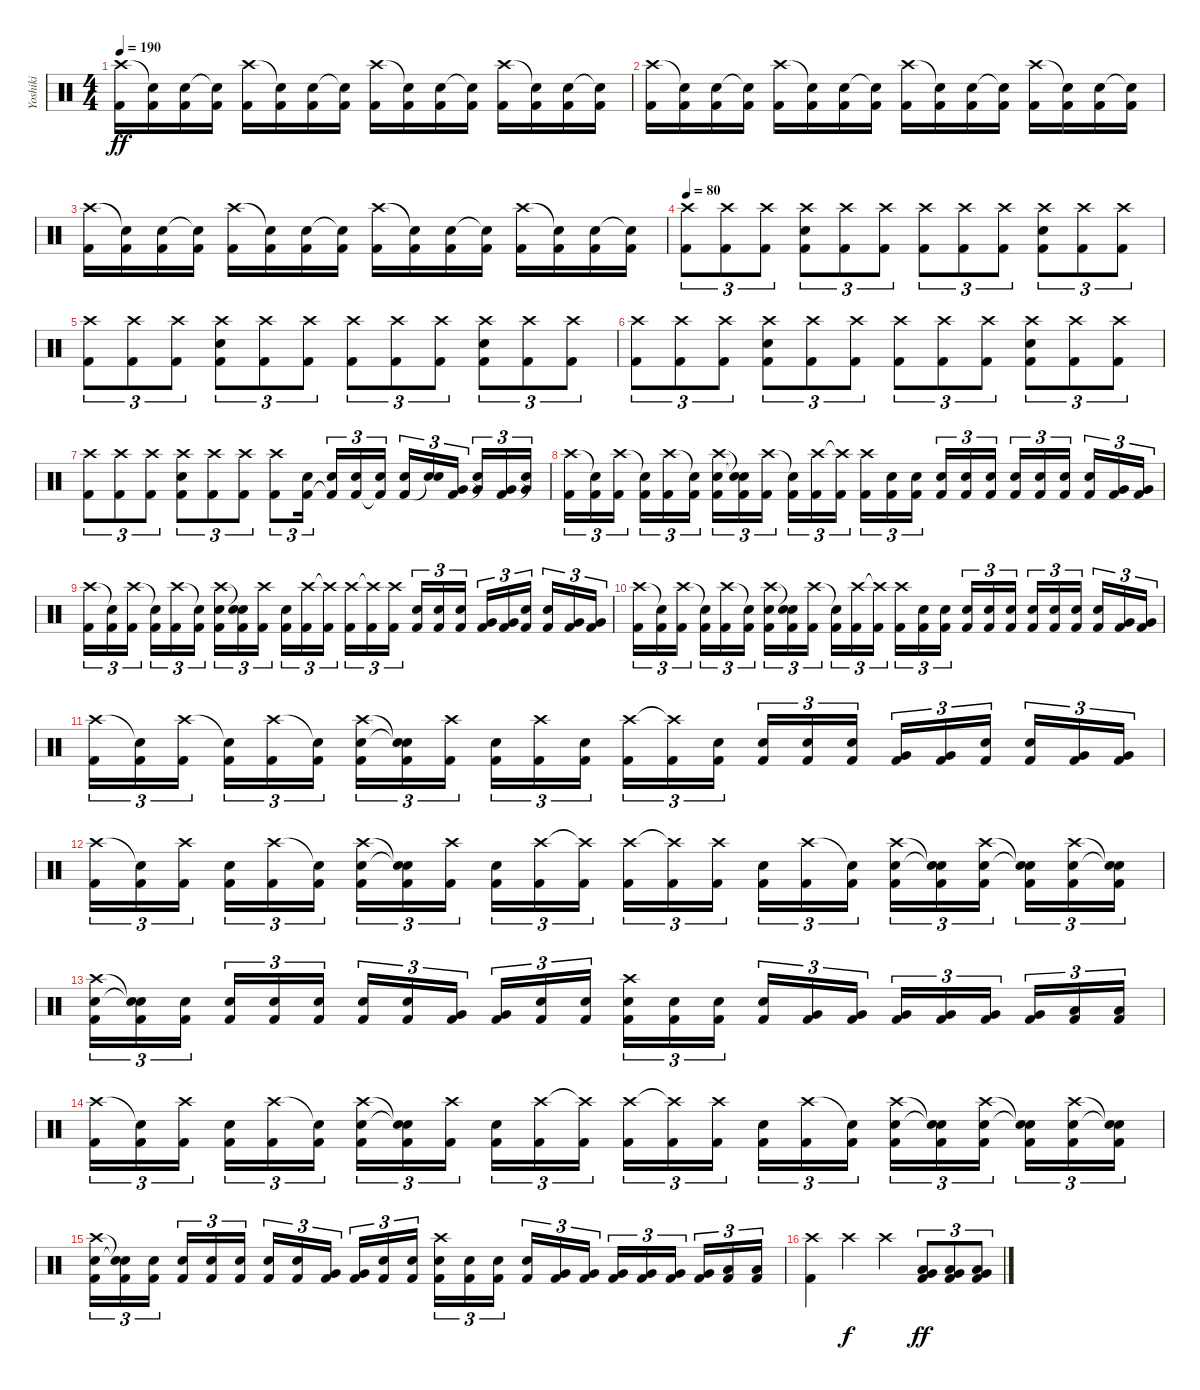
\track ("Yoshiki" "Yoshiki") {instrument percussion}
\staff {score}
\articulation defaults
\ts (4 4)
\tempo 190
\clef neutral
\ks c
("Crash high (hit)" "Kick (hit) 2").16{dy ff} ("Snare (hit)"{t} "Kick (hit) 2").16 ("Snare (hit) 2" "Kick (hit) 2").16 ("Snare (hit)"{t} "Kick (hit) 2").16 ("Crash high (hit)" "Kick (hit) 2").16 ("Snare (hit)"{t} "Kick (hit) 2").16 ("Snare (hit) 2" "Kick (hit) 2").16 ("Snare (hit)"{t} "Kick (hit) 2").16 ("Crash high (hit)" "Kick (hit) 2").16 ("Snare (hit)"{t} "Kick (hit) 2").16 ("Snare (hit) 2" "Kick (hit) 2").16 ("Snare (hit)"{t} "Kick (hit) 2").16 ("Crash high (hit)" "Kick (hit) 2").16 ("Snare (hit)"{t} "Kick (hit) 2").16 ("Snare (hit) 2" "Kick (hit) 2").16 ("Snare (hit)"{t} "Kick (hit) 2").16 |
("Crash high (hit)" "Kick (hit) 2").16 ("Snare (hit)"{t} "Kick (hit) 2").16 ("Snare (hit) 2" "Kick (hit) 2").16 ("Snare (hit)"{t} "Kick (hit) 2").16 ("Crash high (hit)" "Kick (hit) 2").16 ("Snare (hit)"{t} "Kick (hit) 2").16 ("Snare (hit) 2" "Kick (hit) 2").16 ("Snare (hit)"{t} "Kick (hit) 2").16 ("Crash high (hit)" "Kick (hit) 2").16 ("Snare (hit)"{t} "Kick (hit) 2").16 ("Snare (hit) 2" "Kick (hit) 2").16 ("Snare (hit)"{t} "Kick (hit) 2").16 ("Crash high (hit)" "Kick (hit) 2").16 ("Snare (hit)"{t} "Kick (hit) 2").16 ("Snare (hit) 2" "Kick (hit) 2").16 ("Snare (hit)"{t} "Kick (hit) 2").16 |
("Crash high (hit)" "Kick (hit) 2").16 ("Snare (hit)"{t} "Kick (hit) 2").16 ("Snare (hit) 2" "Kick (hit) 2").16 ("Snare (hit)"{t} "Kick (hit) 2").16 ("Crash high (hit)" "Kick (hit) 2").16 ("Snare (hit)"{t} "Kick (hit) 2").16 ("Snare (hit) 2" "Kick (hit) 2").16 ("Snare (hit)"{t} "Kick (hit) 2").16 ("Crash high (hit)" "Kick (hit) 2").16 ("Snare (hit)"{t} "Kick (hit) 2").16 ("Snare (hit) 2" "Kick (hit) 2").16 ("Snare (hit)"{t} "Kick (hit) 2").16 ("Crash high (hit)" "Kick (hit) 2").16 ("Snare (hit)"{t} "Kick (hit) 2").16 ("Snare (hit) 2" "Kick (hit) 2").16 ("Snare (hit)"{t} "Kick (hit) 2").16 |
\tempo 80
("Crash high (hit)" "Kick (hit) 2").8{tu (3 2)} ("Crash high (hit)" "Kick (hit) 2").8{tu (3 2)} ("Crash high (hit)" "Kick (hit) 2").8{tu (3 2)} ("Crash high (hit)" "Snare (hit) 2" "Kick (hit) 2").8{tu (3 2)} ("Crash high (hit)" "Kick (hit) 2").8{tu (3 2)} ("Crash high (hit)" "Kick (hit) 2").8{tu (3 2)} ("Crash high (hit)" "Kick (hit) 2").8{tu (3 2)} ("Crash high (hit)" "Kick (hit) 2").8{tu (3 2)} ("Crash high (hit)" "Kick (hit) 2").8{tu (3 2)} ("Crash high (hit)" "Snare (hit) 2" "Kick (hit) 2").8{tu (3 2)} ("Crash high (hit)" "Kick (hit) 2").8{tu (3 2)} ("Crash high (hit)" "Kick (hit) 2").8{tu (3 2)} |
("Crash high (hit)" "Kick (hit) 2").8{tu (3 2)} ("Crash high (hit)" "Kick (hit) 2").8{tu (3 2)} ("Crash high (hit)" "Kick (hit) 2").8{tu (3 2)} ("Crash high (hit)" "Snare (hit) 2" "Kick (hit) 2").8{tu (3 2)} ("Crash high (hit)" "Kick (hit) 2").8{tu (3 2)} ("Crash high (hit)" "Kick (hit) 2").8{tu (3 2)} ("Crash high (hit)" "Kick (hit) 2").8{tu (3 2)} ("Crash high (hit)" "Kick (hit) 2").8{tu (3 2)} ("Crash high (hit)" "Kick (hit) 2").8{tu (3 2)} ("Crash high (hit)" "Snare (hit) 2" "Kick (hit) 2").8{tu (3 2)} ("Crash high (hit)" "Kick (hit) 2").8{tu (3 2)} ("Crash high (hit)" "Kick (hit) 2").8{tu (3 2)} |
("Crash high (hit)" "Kick (hit) 2").8{tu (3 2)} ("Crash high (hit)" "Kick (hit) 2").8{tu (3 2)} ("Crash high (hit)" "Kick (hit) 2").8{tu (3 2)} ("Crash high (hit)" "Snare (hit) 2" "Kick (hit) 2").8{tu (3 2)} ("Crash high (hit)" "Kick (hit) 2").8{tu (3 2)} ("Crash high (hit)" "Kick (hit) 2").8{tu (3 2)} ("Crash high (hit)" "Kick (hit) 2").8{tu (3 2)} ("Crash high (hit)" "Kick (hit) 2").8{tu (3 2)} ("Crash high (hit)" "Kick (hit) 2").8{tu (3 2)} ("Crash high (hit)" "Snare (hit) 2" "Kick (hit) 2").8{tu (3 2)} ("Crash high (hit)" "Kick (hit) 2").8{tu (3 2)} ("Crash high (hit)" "Kick (hit) 2").8{tu (3 2)} |
("Crash high (hit)" "Kick (hit) 2").8{tu (3 2)} ("Crash high (hit)" "Kick (hit) 2").8{tu (3 2)} ("Crash high (hit)" "Kick (hit) 2").8{tu (3 2)} ("Crash high (hit)" "Snare (hit) 2" "Kick (hit) 2").8{tu (3 2)} ("Crash high (hit)" "Kick (hit) 2").8{tu (3 2)} ("Crash high (hit)" "Kick (hit) 2").8{tu (3 2)} ("Crash high (hit)" "Kick (hit) 2").8{tu (3 2)} ("Snare (hit) 2" "Kick (hit) 2").16{tu (3 2)} ("Snare (hit) 2" "Kick (hit) 2"{t}).16{tu (3 2)} ("Snare (hit) 2" "Kick (hit) 2").16{tu (3 2)} ("Snare (hit) 2" "Kick (hit) 2"{t}).16{tu (3 2)} ("Snare (hit) 2" "Kick (hit) 2").16{tu (3 2)} ("Snare (hit) 2" "Snare (hit)"{t}).16{tu (3 2)} ("Very Low Tom (hit)" "Kick (hit) 2").16{tu (3 2)} ("Very Low Tom (hit)" "Snare (hit)"{t}).16{tu (3 2)} ("Very Low Tom (hit)" "Kick (hit) 2").16{tu (3 2)} ("Very Low Tom (hit)" "Snare (hit)"{t}).16{tu (3 2)} |
("Crash high (hit)" "Kick (hit) 2").16{tu (3 2)} ("Snare (hit)"{t} "Kick (hit) 2").16{tu (3 2)} ("Crash high (hit)" "Kick (hit) 2").16{tu (3 2)} ("Snare (hit)"{t} "Kick (hit) 2").16{tu (3 2)} ("Crash high (hit)" "Kick (hit) 2").16{tu (3 2)} ("Snare (hit)"{t} "Kick (hit) 2").16{tu (3 2)} ("Crash high (hit)" "Snare (hit) 2" "Kick (hit) 2").16{tu (3 2)} ("Snare (hit)"{t} "Snare (hit)"{t} "Kick (hit) 2").16{tu (3 2)} ("Crash high (hit)" "Kick (hit) 2").16{tu (3 2)} ("Snare (hit)"{t} "Kick (hit) 2").16{tu (3 2)} ("Crash high (hit)" "Kick (hit) 2").16{tu (3 2)} ("Crash high (hit)"{t} "Kick (hit) 2").16{tu (3 2)} ("Crash high (hit)" "Kick (hit) 2").16{tu (3 2)} ("Snare (hit) 2" "Kick (hit) 2").16{tu (3 2)} ("Snare (hit) 2" "Kick (hit) 2").16{tu (3 2)} ("Snare (hit) 2" "Kick (hit) 2").16{tu (3 2)} ("Snare (hit) 2" "Kick (hit) 2").16{tu (3 2)} ("Snare (hit) 2" "Kick (hit) 2").16{tu (3 2)} ("Snare (hit) 2" "Kick (hit) 2").16{tu (3 2)} ("Snare (hit) 2" "Kick (hit) 2").16{tu (3 2)} ("Snare (hit) 2" "Kick (hit) 2").16{tu (3 2)} ("Snare (hit) 2" "Kick (hit) 2").16{tu (3 2)} ("Very Low Tom (hit)" "Kick (hit) 2").16{tu (3 2)} ("Very Low Tom (hit)" "Kick (hit) 2").16{tu (3 2)} |
("Crash high (hit)" "Kick (hit) 2").16{tu (3 2)} ("Snare (hit)"{t} "Kick (hit) 2").16{tu (3 2)} ("Crash high (hit)" "Kick (hit) 2").16{tu (3 2)} ("Snare (hit)"{t} "Kick (hit) 2").16{tu (3 2)} ("Crash high (hit)" "Kick (hit) 2").16{tu (3 2)} ("Snare (hit)"{t} "Kick (hit) 2").16{tu (3 2)} ("Crash high (hit)" "Snare (hit) 2" "Kick (hit) 2").16{tu (3 2)} ("Snare (hit)"{t} "Snare (hit)"{t} "Kick (hit) 2").16{tu (3 2)} ("Crash high (hit)" "Kick (hit) 2").16{tu (3 2)} ("Snare (hit) 2" "Kick (hit) 2").16{tu (3 2)} ("Crash high (hit)" "Kick (hit) 2").16{tu (3 2)} ("Crash high (hit)"{t} "Kick (hit) 2").16{tu (3 2)} ("Crash high (hit)" "Kick (hit) 2").16{tu (3 2)} ("Crash high (hit)"{t} "Kick (hit) 2").16{tu (3 2)} ("Crash high (hit)" "Kick (hit) 2").16{tu (3 2)} ("Snare (hit) 2" "Kick (hit) 2").16{tu (3 2)} ("Snare (hit) 2" "Kick (hit) 2").16{tu (3 2)} ("Snare (hit) 2" "Kick (hit) 2").16{tu (3 2)} ("Very Low Tom (hit)" "Kick (hit) 2").16{tu (3 2)} ("Very Low Tom (hit)" "Kick (hit) 2").16{tu (3 2)} ("Snare (hit) 2" "Kick (hit) 2").16{tu (3 2)} ("Snare (hit) 2" "Kick (hit) 2").16{tu (3 2)} ("Very Low Tom (hit)" "Kick (hit) 2").16{tu (3 2)} ("Very Low Tom (hit)" "Kick (hit) 2").16{tu (3 2)} |
("Crash high (hit)" "Kick (hit) 2").16{tu (3 2)} ("Snare (hit)"{t} "Kick (hit) 2").16{tu (3 2)} ("Crash high (hit)" "Kick (hit) 2").16{tu (3 2)} ("Snare (hit)"{t} "Kick (hit) 2").16{tu (3 2)} ("Crash high (hit)" "Kick (hit) 2").16{tu (3 2)} ("Snare (hit)"{t} "Kick (hit) 2").16{tu (3 2)} ("Crash high (hit)" "Snare (hit) 2" "Kick (hit) 2").16{tu (3 2)} ("Snare (hit)"{t} "Snare (hit)"{t} "Kick (hit) 2").16{tu (3 2)} ("Crash high (hit)" "Kick (hit) 2").16{tu (3 2)} ("Snare (hit)"{t} "Kick (hit) 2").16{tu (3 2)} ("Crash high (hit)" "Kick (hit) 2").16{tu (3 2)} ("Crash high (hit)"{t} "Kick (hit) 2").16{tu (3 2)} ("Crash high (hit)" "Kick (hit) 2").16{tu (3 2)} ("Snare (hit) 2" "Kick (hit) 2").16{tu (3 2)} ("Snare (hit) 2" "Kick (hit) 2").16{tu (3 2)} ("Snare (hit) 2" "Kick (hit) 2").16{tu (3 2)} ("Snare (hit) 2" "Kick (hit) 2").16{tu (3 2)} ("Snare (hit) 2" "Kick (hit) 2").16{tu (3 2)} ("Snare (hit) 2" "Kick (hit) 2").16{tu (3 2)} ("Snare (hit) 2" "Kick (hit) 2").16{tu (3 2)} ("Snare (hit) 2" "Kick (hit) 2").16{tu (3 2)} ("Snare (hit) 2" "Kick (hit) 2").16{tu (3 2)} ("Very Low Tom (hit)" "Kick (hit) 2").16{tu (3 2)} ("Very Low Tom (hit)" "Kick (hit) 2").16{tu (3 2)} |
("Crash high (hit)" "Kick (hit) 2").16{tu (3 2)} ("Snare (hit)"{t} "Kick (hit) 2").16{tu (3 2)} ("Crash high (hit)" "Kick (hit) 2").16{tu (3 2)} ("Snare (hit)"{t} "Kick (hit) 2").16{tu (3 2)} ("Crash high (hit)" "Kick (hit) 2").16{tu (3 2)} ("Snare (hit)"{t} "Kick (hit) 2").16{tu (3 2)} ("Crash high (hit)" "Snare (hit) 2" "Kick (hit) 2").16{tu (3 2)} ("Snare (hit)"{t} "Snare (hit)"{t} "Kick (hit) 2").16{tu (3 2)} ("Crash high (hit)" "Kick (hit) 2").16{tu (3 2)} ("Snare (hit) 2" "Kick (hit) 2").16{tu (3 2)} ("Crash high (hit)" "Kick (hit) 2").16{tu (3 2)} ("Snare (hit) 2" "Kick (hit) 2").16{tu (3 2)} ("Crash high (hit)" "Kick (hit) 2").16{tu (3 2)} ("Crash high (hit)"{t} "Kick (hit) 2").16{tu (3 2)} ("Snare (hit) 2" "Kick (hit) 2").16{tu (3 2)} ("Snare (hit) 2" "Kick (hit) 2").16{tu (3 2)} ("Snare (hit) 2" "Kick (hit) 2").16{tu (3 2)} ("Snare (hit) 2" "Kick (hit) 2").16{tu (3 2)} ("Very Low Tom (hit)" "Kick (hit) 2").16{tu (3 2)} ("Very Low Tom (hit)" "Kick (hit) 2").16{tu (3 2)} ("Snare (hit) 2" "Kick (hit) 2").16{tu (3 2)} ("Snare (hit) 2" "Kick (hit) 2").16{tu (3 2)} ("Very Low Tom (hit)" "Kick (hit) 2").16{tu (3 2)} ("Very Low Tom (hit)" "Kick (hit) 2").16{tu (3 2)} |
("Crash high (hit)" "Kick (hit) 2").16{tu (3 2)} ("Snare (hit)"{t} "Kick (hit) 2").16{tu (3 2)} ("Crash high (hit)" "Kick (hit) 2").16{tu (3 2)} ("Snare (hit) 2" "Kick (hit) 2").16{tu (3 2)} ("Crash high (hit)" "Kick (hit) 2").16{tu (3 2)} ("Snare (hit)"{t} "Kick (hit) 2").16{tu (3 2)} ("Crash high (hit)" "Snare (hit) 2" "Kick (hit) 2").16{tu (3 2)} ("Snare (hit)"{t} "Snare (hit)"{t} "Kick (hit) 2").16{tu (3 2)} ("Crash high (hit)" "Kick (hit) 2").16{tu (3 2)} ("Snare (hit) 2" "Kick (hit) 2").16{tu (3 2)} ("Crash high (hit)" "Kick (hit) 2").16{tu (3 2)} ("Crash high (hit)"{t} "Kick (hit) 2").16{tu (3 2)} ("Crash high (hit)" "Kick (hit) 2").16{tu (3 2)} ("Crash high (hit)"{t} "Kick (hit) 2").16{tu (3 2)} ("Crash high (hit)" "Kick (hit) 2").16{tu (3 2)} ("Snare (hit) 2" "Kick (hit) 2").16{tu (3 2)} ("Crash high (hit)" "Kick (hit) 2").16{tu (3 2)} ("Snare (hit)"{t} "Kick (hit) 2").16{tu (3 2)} ("Crash high (hit)" "Snare (hit) 2" "Kick (hit) 2").16{tu (3 2)} ("Snare (hit)"{t} "Snare (hit) 2"{t} "Kick (hit) 2").16{tu (3 2)} ("Crash high (hit)" "Snare (hit) 2" "Kick (hit) 2").16{tu (3 2)} ("Snare (hit)"{t} "Snare (hit) 2"{t} "Kick (hit) 2").16{tu (3 2)} ("Crash high (hit)" "Snare (hit) 2" "Kick (hit) 2").16{tu (3 2)} ("Snare (hit)"{t} "Snare (hit)"{t} "Kick (hit) 2").16{tu (3 2)} |
("Crash high (hit)" "Snare (hit) 2" "Kick (hit) 2").16{tu (3 2)} ("Snare (hit)"{t} "Snare (hit)"{t} "Kick (hit) 2").16{tu (3 2)} ("Snare (hit) 2" "Kick (hit) 2").16{tu (3 2)} ("Snare (hit) 2" "Kick (hit) 2").16{tu (3 2)} ("Snare (hit) 2" "Kick (hit) 2").16{tu (3 2)} ("Snare (hit) 2" "Kick (hit) 2").16{tu (3 2)} ("Snare (hit) 2" "Kick (hit) 2").16{tu (3 2)} ("Snare (hit) 2" "Kick (hit) 2").16{tu (3 2)} ("Very Low Tom (hit)" "Kick (hit) 2").16{tu (3 2)} ("Very Low Tom (hit)" "Kick (hit) 2").16{tu (3 2)} ("Snare (hit) 2" "Kick (hit) 2").16{tu (3 2)} ("Snare (hit) 2" "Kick (hit) 2").16{tu (3 2)} ("Crash high (hit)" "Snare (hit) 2" "Kick (hit) 2").16{tu (3 2)} ("Snare (hit) 2" "Kick (hit) 2").16{tu (3 2)} ("Snare (hit) 2" "Kick (hit) 2").16{tu (3 2)} ("Snare (hit) 2" "Kick (hit) 2").16{tu (3 2)} ("Very Low Tom (hit)" "Kick (hit) 2").16{tu (3 2)} ("Very Low Tom (hit)" "Kick (hit) 2").16{tu (3 2)} ("Very Low Tom (hit)" "Kick (hit) 2").16{tu (3 2)} ("Very Low Tom (hit)" "Kick (hit) 2").16{tu (3 2)} ("Very Low Tom (hit)" "Kick (hit) 2").16{tu (3 2)} ("Very Low Tom (hit)" "Kick (hit) 2").16{tu (3 2)} ("Low Floor Tom (hit)" "Kick (hit) 2").16{tu (3 2)} ("Low Floor Tom (hit)" "Kick (hit) 2").16{tu (3 2)} |
("Crash high (hit)" "Kick (hit) 2").16{tu (3 2)} ("Snare (hit)"{t} "Kick (hit) 2").16{tu (3 2)} ("Crash high (hit)" "Kick (hit) 2").16{tu (3 2)} ("Snare (hit) 2" "Kick (hit) 2").16{tu (3 2)} ("Crash high (hit)" "Kick (hit) 2").16{tu (3 2)} ("Snare (hit)"{t} "Kick (hit) 2").16{tu (3 2)} ("Crash high (hit)" "Snare (hit) 2" "Kick (hit) 2").16{tu (3 2)} ("Snare (hit)"{t} "Snare (hit)"{t} "Kick (hit) 2").16{tu (3 2)} ("Crash high (hit)" "Kick (hit) 2").16{tu (3 2)} ("Snare (hit) 2" "Kick (hit) 2").16{tu (3 2)} ("Crash high (hit)" "Kick (hit) 2").16{tu (3 2)} ("Crash high (hit)"{t} "Kick (hit) 2").16{tu (3 2)} ("Crash high (hit)" "Kick (hit) 2").16{tu (3 2)} ("Crash high (hit)"{t} "Kick (hit) 2").16{tu (3 2)} ("Crash high (hit)" "Kick (hit) 2").16{tu (3 2)} ("Snare (hit) 2" "Kick (hit) 2").16{tu (3 2)} ("Crash high (hit)" "Kick (hit) 2").16{tu (3 2)} ("Snare (hit)"{t} "Kick (hit) 2").16{tu (3 2)} ("Crash high (hit)" "Snare (hit) 2" "Kick (hit) 2").16{tu (3 2)} ("Snare (hit)"{t} "Snare (hit) 2"{t} "Kick (hit) 2").16{tu (3 2)} ("Crash high (hit)" "Snare (hit) 2" "Kick (hit) 2").16{tu (3 2)} ("Snare (hit)"{t} "Snare (hit) 2"{t} "Kick (hit) 2").16{tu (3 2)} ("Crash high (hit)" "Snare (hit) 2" "Kick (hit) 2").16{tu (3 2)} ("Snare (hit)"{t} "Snare (hit)"{t} "Kick (hit) 2").16{tu (3 2)} |
("Crash high (hit)" "Snare (hit) 2" "Kick (hit) 2").16{tu (3 2)} ("Snare (hit)"{t} "Snare (hit)"{t} "Kick (hit) 2").16{tu (3 2)} ("Snare (hit) 2" "Kick (hit) 2").16{tu (3 2)} ("Snare (hit) 2" "Kick (hit) 2").16{tu (3 2)} ("Snare (hit) 2" "Kick (hit) 2").16{tu (3 2)} ("Snare (hit) 2" "Kick (hit) 2").16{tu (3 2)} ("Snare (hit) 2" "Kick (hit) 2").16{tu (3 2)} ("Snare (hit) 2" "Kick (hit) 2").16{tu (3 2)} ("Very Low Tom (hit)" "Kick (hit) 2").16{tu (3 2)} ("Very Low Tom (hit)" "Kick (hit) 2").16{tu (3 2)} ("Snare (hit) 2" "Kick (hit) 2").16{tu (3 2)} ("Snare (hit) 2" "Kick (hit) 2").16{tu (3 2)} ("Crash high (hit)" "Snare (hit) 2" "Kick (hit) 2").16{tu (3 2)} ("Snare (hit) 2" "Kick (hit) 2").16{tu (3 2)} ("Snare (hit) 2" "Kick (hit) 2").16{tu (3 2)} ("Snare (hit) 2" "Kick (hit) 2").16{tu (3 2)} ("Very Low Tom (hit)" "Kick (hit) 2").16{tu (3 2)} ("Very Low Tom (hit)" "Kick (hit) 2").16{tu (3 2)} ("Very Low Tom (hit)" "Kick (hit) 2").16{tu (3 2)} ("Very Low Tom (hit)" "Kick (hit) 2").16{tu (3 2)} ("Very Low Tom (hit)" "Kick (hit) 2").16{tu (3 2)} ("Very Low Tom (hit)" "Kick (hit) 2").16{tu (3 2)} ("Low Floor Tom (hit)" "Kick (hit) 2").16{tu (3 2)} ("Low Floor Tom (hit)" "Kick (hit) 2").16{tu (3 2)} |
("Crash high (hit)" "Kick (hit) 2").4 "Crash high (hit)".4{dy f} "Crash high (hit)".4 ("Very Low Tom (hit)" "Low Floor Tom (hit)" "Kick (hit) 2").8{tu (3 2) dy ff} ("Very Low Tom (hit)" "Low Floor Tom (hit)" "Kick (hit) 2").8{tu (3 2)} ("Very Low Tom (hit)" "Low Floor Tom (hit)" "Kick (hit) 2").8{tu (3 2)}
